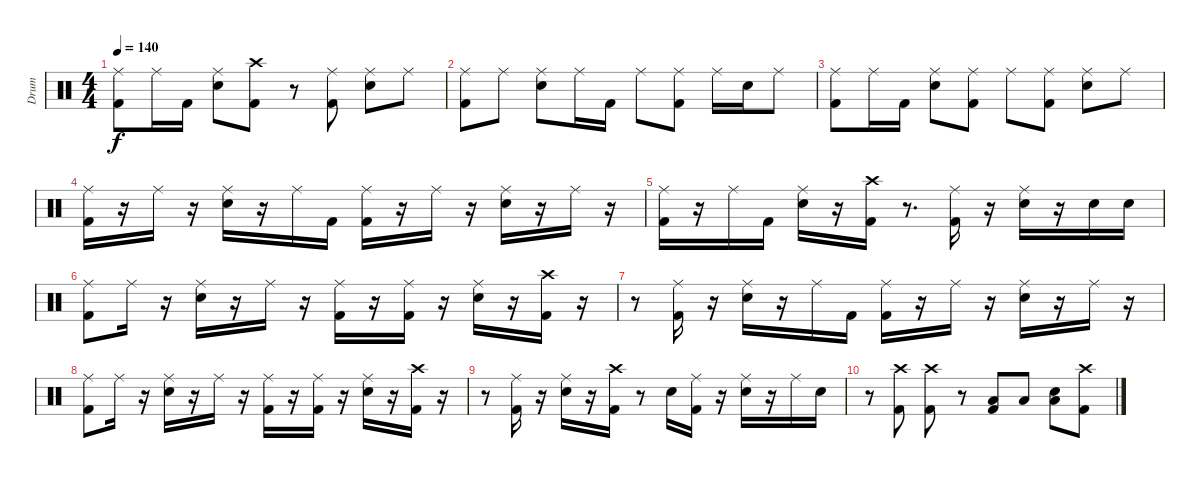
\track ("Drum" "Drum") {instrument percussion}
\staff {score}
\articulation defaults
\ts (4 4)
\tempo 140
\clef neutral
\ks c
("Kick (hit) 2" "Ride (middle)").8{dy f} "Ride (middle)".16 "Kick (hit) 2".16 ("Electric Snare (hit)" "Ride (middle)").8 ("Kick (hit) 2" "Crash high (hit)").8 r.8 ("Kick (hit) 2" "Ride (middle)").8 ("Electric Snare (hit)" "Ride (middle)").8 "Ride (middle)".8 |
("Kick (hit) 2" "Ride (middle)").8 "Ride (middle)".8 ("Electric Snare (hit)" "Ride (middle)").8 "Ride (middle)".16 "Kick (hit) 2".16 "Ride (middle)".8 ("Kick (hit) 2" "Ride (middle)").8 "Ride (middle)".16 "Electric Snare (hit)".16 "Ride (middle)".8 |
("Kick (hit) 2" "Ride (middle)").8 "Ride (middle)".16 "Kick (hit) 2".16 ("Electric Snare (hit)" "Ride (middle)").8 ("Kick (hit) 2" "Ride (middle)").8 "Ride (middle)".8 ("Kick (hit) 2" "Ride (middle)").8 ("Electric Snare (hit)" "Ride (middle)").8 "Ride (middle)".8 |
("Kick (hit) 2" "Ride (middle)").16 r.16 "Ride (middle)".16 r.16 ("Electric Snare (hit)" "Ride (middle)").16 r.16 "Ride (middle)".16 "Kick (hit) 2".16 ("Kick (hit) 2" "Ride (middle)").16 r.16 "Ride (middle)".16 r.16 ("Electric Snare (hit)" "Ride (middle)").16 r.16 "Ride (middle)".16 r.16 |
("Kick (hit) 2" "Ride (middle)").16 r.16 "Ride (middle)".16 "Kick (hit) 2".16 ("Electric Snare (hit)" "Ride (middle)").16 r.16 ("Kick (hit) 2" "Crash high (hit)").16 r.8{d} ("Kick (hit) 2" "Ride (middle)").16 r.16 ("Electric Snare (hit)" "Ride (middle)").16 r.16 "Electric Snare (hit)".16 "Electric Snare (hit)".16 |
("Kick (hit) 2" "Ride (middle)").8 "Ride (middle)".16 r.16 ("Electric Snare (hit)" "Ride (middle)").16 r.16 "Ride (middle)".16 r.16 ("Kick (hit) 2" "Ride (middle)").16 r.16 ("Kick (hit) 2" "Ride (middle)").16 r.16 ("Electric Snare (hit)" "Ride (middle)").16 r.16 ("Kick (hit) 2" "Crash high (hit)").16 r.16 |
r.8 ("Kick (hit) 2" "Ride (middle)").16 r.16 ("Electric Snare (hit)" "Ride (middle)").16 r.16 "Ride (middle)".16 "Kick (hit) 2".16 ("Kick (hit) 2" "Ride (middle)").16 r.16 "Ride (middle)".16 r.16 ("Electric Snare (hit)" "Ride (middle)").16 r.16 "Ride (middle)".16 r.16 |
("Kick (hit) 2" "Ride (middle)").8 "Ride (middle)".16 r.16 ("Electric Snare (hit)" "Ride (middle)").16 r.16 "Ride (middle)".16 r.16 ("Kick (hit) 2" "Ride (middle)").16 r.16 ("Kick (hit) 2" "Ride (middle)").16 r.16 ("Electric Snare (hit)" "Ride (middle)").16 r.16 ("Kick (hit) 2" "Crash high (hit)").16 r.16 |
r.8 ("Kick (hit) 2" "Ride (middle)").16 r.16 ("Electric Snare (hit)" "Ride (middle)").16 r.16 ("Kick (hit) 2" "Crash high (hit)").16 r.8 "Electric Snare (hit)".16 ("Kick (hit) 2" "Ride (middle)").16 r.16 ("Electric Snare (hit)" "Ride (middle)").16 r.16 "Ride (middle)".16 "Electric Snare (hit)".16 |
r.8 ("Crash high (hit)" "Kick (hit) 2").8 ("Crash high (hit)" "Kick (hit) 2").8 r.8 ("Kick (hit) 2" "Low Floor Tom (hit)").8 "Low Floor Tom (hit)".8 ("Electric Snare (hit)" "Low Floor Tom (hit)").8 ("Crash high (hit)" "Kick (hit) 2").8
